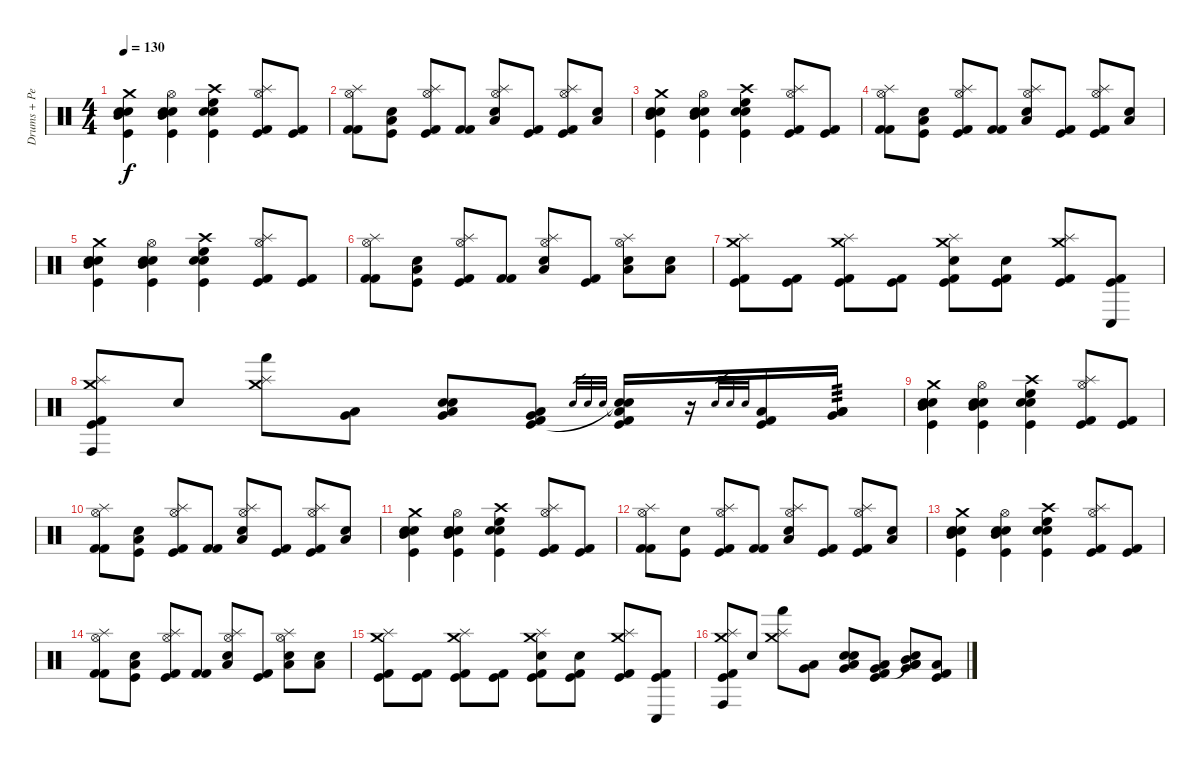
\track ("Drums + Percussions (Dave Chavarri)" "Drums + Pe") {instrument percussion}
\staff {score}
\articulation defaults
\ts (4 4)
\tempo 130
\clef neutral
\ks c
("Crash medium (hit)" "Snare (hit) 2" "Electric Snare (hit)" "Mid Tom (hit)" "Kick (hit)").4{dy f} ("Hi-Hat (open)" "Snare (hit) 2" "Electric Snare (hit)" "Mid Tom (hit)" "Kick (hit)").4 ("Crash high (hit)" "Snare (hit) 2" "Electric Snare (hit)" "High Floor Tom (hit)" "Kick (hit)").4 ("Hi-Hat (open)" "Splash (hit)" "Kick (hit) 2" "Kick (hit)").8 ("Kick (hit) 2" "Kick (hit)").8 |
("Hi-Hat (open)" "Splash (hit)" "Kick (hit) 2" "Kick (hit) 2").8 ("Electric Snare (hit)" "Low Floor Tom (hit)" "Kick (hit)").8 ("Hi-Hat (open)" "Splash (hit)" "Kick (hit) 2" "Kick (hit)").8 ("Kick (hit) 2" "Kick (hit) 2").8 ("Hi-Hat (open)" "Splash (hit)" "Electric Snare (hit)" "Low Floor Tom (hit)").8 ("Kick (hit)" "Kick (hit) 2").8 ("Hi-Hat (open)" "Splash (hit)" "Kick (hit)" "Kick (hit) 2").8 ("Electric Snare (hit)" "Low Floor Tom (hit)").8 |
("Crash medium (hit)" "Snare (hit) 2" "Electric Snare (hit)" "Mid Tom (hit)" "Kick (hit)").4 ("Hi-Hat (open)" "Snare (hit) 2" "Electric Snare (hit)" "Mid Tom (hit)" "Kick (hit)").4 ("Crash high (hit)" "Snare (hit) 2" "Electric Snare (hit)" "High Floor Tom (hit)" "Kick (hit)").4 ("Hi-Hat (open)" "Splash (hit)" "Kick (hit) 2" "Kick (hit)").8 ("Kick (hit) 2" "Kick (hit)").8 |
("Hi-Hat (open)" "Splash (hit)" "Kick (hit) 2" "Kick (hit) 2").8 ("Electric Snare (hit)" "Low Floor Tom (hit)" "Kick (hit)").8 ("Hi-Hat (open)" "Splash (hit)" "Kick (hit) 2" "Kick (hit)").8 ("Kick (hit) 2" "Kick (hit) 2").8 ("Hi-Hat (open)" "Splash (hit)" "Electric Snare (hit)" "Low Floor Tom (hit)").8 ("Kick (hit)" "Kick (hit) 2").8 ("Hi-Hat (open)" "Splash (hit)" "Kick (hit)" "Kick (hit) 2").8 ("Electric Snare (hit)" "Low Floor Tom (hit)").8 |
("Crash medium (hit)" "Snare (hit) 2" "Electric Snare (hit)" "Mid Tom (hit)" "Kick (hit)").4 ("Hi-Hat (open)" "Snare (hit) 2" "Electric Snare (hit)" "Mid Tom (hit)" "Kick (hit)").4 ("Crash high (hit)" "Snare (hit) 2" "Electric Snare (hit)" "High Floor Tom (hit)" "Kick (hit)").4 ("Hi-Hat (open)" "Splash (hit)" "Kick (hit) 2" "Kick (hit)").8 ("Kick (hit) 2" "Kick (hit)").8 |
("Hi-Hat (open)" "Splash (hit)" "Kick (hit) 2" "Kick (hit) 2").8 ("Electric Snare (hit)" "Low Floor Tom (hit)" "Kick (hit)").8 ("Hi-Hat (open)" "Splash (hit)" "Kick (hit) 2" "Kick (hit)").8 ("Kick (hit) 2" "Kick (hit) 2").8 ("Hi-Hat (open)" "Splash (hit)" "Electric Snare (hit)" "Low Floor Tom (hit)").8 ("Kick (hit)" "Kick (hit) 2").8 ("Hi-Hat (open)" "Splash (hit)" "Electric Snare (hit)" "Low Floor Tom (hit)").8 ("Electric Snare (hit)" "Low Floor Tom (hit)").8 |
("Crash medium (hit)" "Splash (hit)" "Kick (hit)" "Kick (hit) 2").8 ("Kick (hit)" "Kick (hit) 2").8 ("Crash medium (hit)" "Splash (hit)" "Kick (hit)" "Kick (hit) 2").8 ("Kick (hit)" "Kick (hit) 2").8 ("Crash medium (hit)" "Splash (hit)" "Electric Snare (hit)" "Kick (hit)" "Kick (hit) 2").8 ("Electric Snare (hit)" "Kick (hit)" "Kick (hit) 2").8 ("Crash medium (hit)" "Splash (hit)" "Kick (hit)" "Kick (hit) 2").8 ("Conga low (hit)" "Kick (hit)" "Kick (hit) 2").8 |
("Crash medium (hit)" "Splash (hit)" "Conga high (hit)" "Kick (hit)" "Kick (hit) 2").8 "Electric Snare (hit)".8 ("Crash medium (hit)" "Splash (hit)" "Hand (hit)").8 ("Low Floor Tom (hit)" "Very Low Tom (hit)").8 ("Snare (hit) 2" "Electric Snare (hit)" "Low Floor Tom (hit)" "Very Low Tom (hit)").8 ("Kick (hit) 2" "Kick (hit)" "Low Floor Tom (hit)" "Very Low Tom (hit)").8 "Electric Snare (hit)".32{gr} "Electric Snare (hit)".32{gr} "Electric Snare (hit)".32{gr} ("Snare (hit)"{t} "Snare (hit)"{t} "Low Floor Tom (hit)" "Kick (hit) 2" "Kick (hit)").16 r.16 "Electric Snare (hit)".32{gr} "Electric Snare (hit)".32{gr} "Electric Snare (hit)".32{gr} ("Low Floor Tom (hit)" "Kick (hit)" "Kick (hit) 2").16 ("Low Tom (hit)" "Low Floor Tom (hit)" "Very Low Tom (hit)").16{tp 3} |
("Crash medium (hit)" "Snare (hit) 2" "Electric Snare (hit)" "Mid Tom (hit)" "Kick (hit)").4 ("Hi-Hat (open)" "Snare (hit) 2" "Electric Snare (hit)" "Mid Tom (hit)" "Kick (hit)").4 ("Crash high (hit)" "Snare (hit) 2" "Electric Snare (hit)" "High Floor Tom (hit)" "Kick (hit)").4 ("Hi-Hat (open)" "Splash (hit)" "Kick (hit) 2" "Kick (hit)").8 ("Kick (hit) 2" "Kick (hit)").8 |
("Hi-Hat (open)" "Splash (hit)" "Kick (hit) 2" "Kick (hit) 2").8 ("Electric Snare (hit)" "Low Floor Tom (hit)" "Kick (hit)").8 ("Hi-Hat (open)" "Splash (hit)" "Kick (hit) 2" "Kick (hit)").8 ("Kick (hit) 2" "Kick (hit) 2").8 ("Hi-Hat (open)" "Splash (hit)" "Electric Snare (hit)" "Low Floor Tom (hit)").8 ("Kick (hit)" "Kick (hit) 2").8 ("Hi-Hat (open)" "Splash (hit)" "Kick (hit)" "Kick (hit) 2").8 ("Electric Snare (hit)" "Low Floor Tom (hit)").8 |
("Crash medium (hit)" "Snare (hit) 2" "Electric Snare (hit)" "Mid Tom (hit)" "Kick (hit)").4 ("Hi-Hat (open)" "Snare (hit) 2" "Electric Snare (hit)" "Mid Tom (hit)" "Kick (hit)").4 ("Crash high (hit)" "Snare (hit) 2" "Electric Snare (hit)" "High Floor Tom (hit)" "Kick (hit)").4 ("Hi-Hat (open)" "Splash (hit)" "Kick (hit) 2" "Kick (hit)").8 ("Kick (hit) 2" "Kick (hit)").8 |
("Hi-Hat (open)" "Splash (hit)" "Kick (hit) 2" "Kick (hit) 2").8 ("Electric Snare (hit)" "Kick (hit)").8 ("Hi-Hat (open)" "Splash (hit)" "Kick (hit) 2" "Kick (hit)").8 ("Kick (hit) 2" "Kick (hit) 2").8 ("Hi-Hat (open)" "Splash (hit)" "Electric Snare (hit)" "Low Floor Tom (hit)").8 ("Kick (hit)" "Kick (hit) 2").8 ("Hi-Hat (open)" "Splash (hit)" "Kick (hit)" "Kick (hit) 2").8 ("Electric Snare (hit)" "Low Floor Tom (hit)").8 |
("Crash medium (hit)" "Snare (hit) 2" "Electric Snare (hit)" "Mid Tom (hit)" "Kick (hit)").4 ("Hi-Hat (open)" "Snare (hit) 2" "Electric Snare (hit)" "Mid Tom (hit)" "Kick (hit)").4 ("Crash high (hit)" "Snare (hit) 2" "Electric Snare (hit)" "High Floor Tom (hit)" "Kick (hit)").4 ("Hi-Hat (open)" "Splash (hit)" "Kick (hit) 2" "Kick (hit)").8 ("Kick (hit) 2" "Kick (hit)").8 |
("Hi-Hat (open)" "Splash (hit)" "Kick (hit) 2" "Kick (hit) 2").8 ("Electric Snare (hit)" "Low Floor Tom (hit)" "Kick (hit)").8 ("Hi-Hat (open)" "Splash (hit)" "Kick (hit) 2" "Kick (hit)").8 ("Kick (hit) 2" "Kick (hit) 2").8 ("Hi-Hat (open)" "Splash (hit)" "Electric Snare (hit)" "Low Floor Tom (hit)").8 ("Kick (hit)" "Kick (hit) 2").8 ("Hi-Hat (open)" "Splash (hit)" "Electric Snare (hit)" "Low Floor Tom (hit)").8 ("Electric Snare (hit)" "Low Floor Tom (hit)").8 |
("Crash medium (hit)" "Splash (hit)" "Kick (hit)" "Kick (hit) 2").8 ("Kick (hit)" "Kick (hit) 2").8 ("Crash medium (hit)" "Splash (hit)" "Kick (hit)" "Kick (hit) 2").8 ("Kick (hit)" "Kick (hit) 2").8 ("Crash medium (hit)" "Splash (hit)" "Electric Snare (hit)" "Kick (hit)" "Kick (hit) 2").8 ("Electric Snare (hit)" "Kick (hit)" "Kick (hit) 2").8 ("Crash medium (hit)" "Splash (hit)" "Kick (hit)" "Kick (hit) 2").8 ("Conga low (hit)" "Kick (hit)" "Kick (hit) 2").8 |
("Crash medium (hit)" "Splash (hit)" "Conga high (hit)" "Kick (hit)" "Kick (hit) 2").8 "Electric Snare (hit)".8 ("Crash medium (hit)" "Splash (hit)" "Hand (hit)").8 ("Low Floor Tom (hit)" "Very Low Tom (hit)").8 ("Snare (hit) 2" "Electric Snare (hit)" "Low Floor Tom (hit)" "Very Low Tom (hit)").8 ("Kick (hit) 2" "Kick (hit)" "Low Floor Tom (hit)" "Very Low Tom (hit)").8 ("Snare (hit)"{t} "Mid Tom (hit)" "Low Tom (hit)" "Low Floor Tom (hit)" "Very Low Tom (hit)").8 ("Kick (hit)" "Kick (hit) 2" "Low Floor Tom (hit)").8
